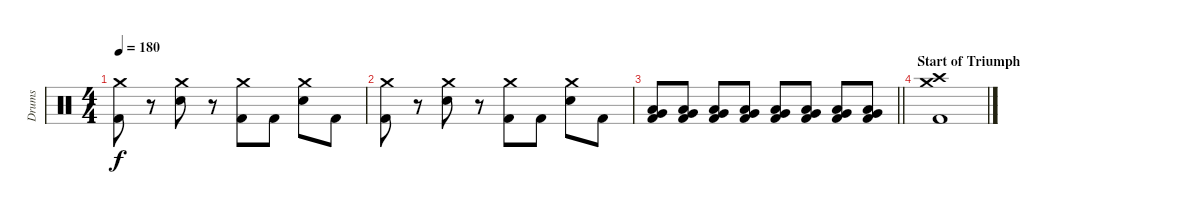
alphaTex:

\track ("Drums" "Drums") {instrument percussion}
\staff {score}
\articulation defaults
\ts (4 4)
\tempo 180
\clef neutral
\ks c
("Crash medium (hit)" "Kick (hit) 2").8{dy f} r.8 ("Crash medium (hit)" "Electric Snare (hit)").8 r.8 ("Crash medium (hit)" "Kick (hit) 2").8 "Kick (hit) 2".8 ("Crash medium (hit)" "Electric Snare (hit)").8 "Kick (hit) 2".8 |
("Crash medium (hit)" "Kick (hit) 2").8 r.8 ("Crash medium (hit)" "Electric Snare (hit)").8 r.8 ("Crash medium (hit)" "Kick (hit) 2").8 "Kick (hit) 2".8 ("Crash medium (hit)" "Electric Snare (hit)").8 "Kick (hit) 2".8 |
\barLineRight lightlight
("Low Floor Tom (hit)" "Very Low Tom (hit)" "Kick (hit) 2").8 ("Low Floor Tom (hit)" "Very Low Tom (hit)" "Kick (hit) 2").8 ("Low Floor Tom (hit)" "Very Low Tom (hit)" "Kick (hit) 2").8 ("Low Floor Tom (hit)" "Very Low Tom (hit)" "Kick (hit) 2").8 ("Low Floor Tom (hit)" "Very Low Tom (hit)" "Kick (hit) 2").8 ("Low Floor Tom (hit)" "Very Low Tom (hit)" "Kick (hit) 2").8 ("Low Floor Tom (hit)" "Very Low Tom (hit)" "Kick (hit) 2").8 ("Low Floor Tom (hit)" "Very Low Tom (hit)" "Kick (hit) 2").8 |
\section ("" "Start of Triumph")
("Crash medium (hit)" "Crash high (hit)" "Kick (hit) 2").1
